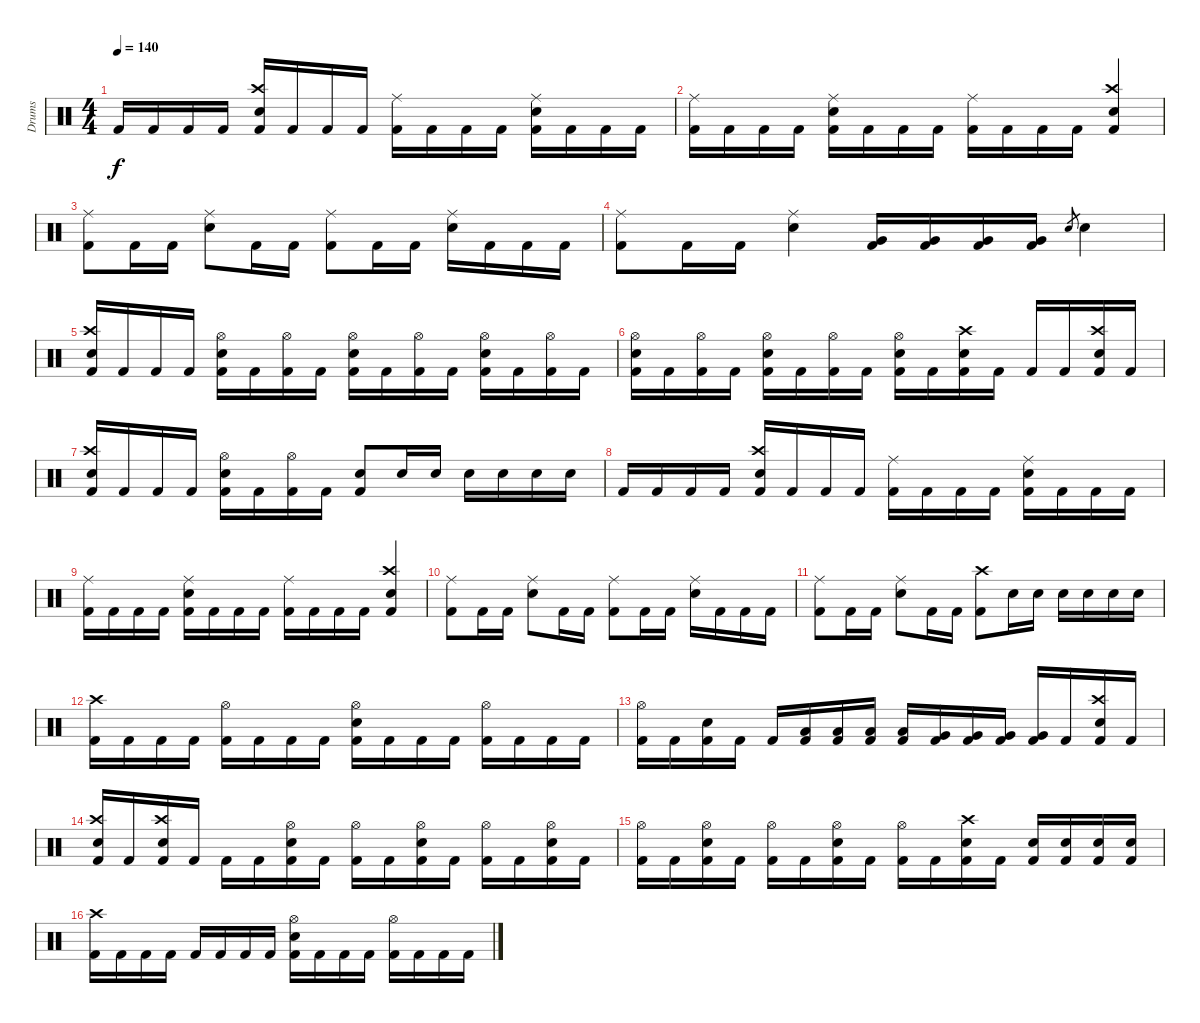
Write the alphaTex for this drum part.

\track ("Drums" "Drums") {instrument percussion}
\staff {score}
\articulation defaults
\ts (4 4)
\tempo 140
\clef neutral
\ks c "Kick (hit) 2".16{dy f} "Kick (hit) 2".16 "Kick (hit) 2".16 "Kick (hit) 2".16
("Crash high (hit)" "Electric Snare (hit)" "Kick (hit) 2").16 "Kick (hit) 2".16 "Kick (hit) 2".16 "Kick (hit) 2".16 ("Ride (middle)" "Kick (hit) 2").16 "Kick (hit) 2".16 "Kick (hit) 2".16 "Kick (hit) 2".16 ("Ride (middle)" "Electric Snare (hit)" "Kick (hit) 2").16 "Kick (hit) 2".16 "Kick (hit) 2".16 "Kick (hit) 2".16 |
("Ride (middle)" "Kick (hit) 2").16 "Kick (hit) 2".16 "Kick (hit) 2".16 "Kick (hit) 2".16 ("Ride (middle)" "Electric Snare (hit)" "Kick (hit) 2").16 "Kick (hit) 2".16 "Kick (hit) 2".16 "Kick (hit) 2".16 ("Ride (middle)" "Kick (hit) 2").16 "Kick (hit) 2".16 "Kick (hit) 2".16 "Kick (hit) 2".16 ("Crash high (hit)" "Electric Snare (hit)" "Kick (hit) 2").4 |
("Ride (middle)" "Kick (hit) 2").8 "Kick (hit) 2".16 "Kick (hit) 2".16 ("Ride (middle)" "Electric Snare (hit)").8 "Kick (hit) 2".16 "Kick (hit) 2".16 ("Ride (middle)" "Kick (hit) 2").8 "Kick (hit) 2".16 "Kick (hit) 2".16 ("Ride (middle)" "Electric Snare (hit)").16 "Kick (hit) 2".16 "Kick (hit) 2".16 "Kick (hit) 2".16 |
("Ride (middle)" "Kick (hit) 2").8 "Kick (hit) 2".16 "Kick (hit) 2".16 ("Ride (middle)" "Electric Snare (hit)").4 ("Very Low Tom (hit)" "Kick (hit) 2").16 ("Very Low Tom (hit)" "Kick (hit) 2").16 ("Very Low Tom (hit)" "Kick (hit) 2").16 ("Very Low Tom (hit)" "Kick (hit) 2").16 "Electric Snare (hit)".8{gr} "Electric Snare (hit)".4 |
("Crash high (hit)" "Electric Snare (hit)" "Kick (hit) 2").16 "Kick (hit) 2".16 "Kick (hit) 2".16 "Kick (hit) 2".16 ("Hi-Hat (open)" "Electric Snare (hit)" "Kick (hit) 2").16 "Kick (hit) 2".16 ("Hi-Hat (open)" "Kick (hit) 2").16 "Kick (hit) 2".16 ("Hi-Hat (open)" "Electric Snare (hit)" "Kick (hit) 2").16 "Kick (hit) 2".16 ("Hi-Hat (open)" "Kick (hit) 2").16 "Kick (hit) 2".16 ("Hi-Hat (open)" "Electric Snare (hit)" "Kick (hit) 2").16 "Kick (hit) 2".16 ("Hi-Hat (open)" "Kick (hit) 2").16 "Kick (hit) 2".16 |
("Hi-Hat (open)" "Electric Snare (hit)" "Kick (hit) 2").16 "Kick (hit) 2".16 ("Hi-Hat (open)" "Kick (hit) 2").16 "Kick (hit) 2".16 ("Hi-Hat (open)" "Electric Snare (hit)" "Kick (hit) 2").16 "Kick (hit) 2".16 ("Hi-Hat (open)" "Kick (hit) 2").16 "Kick (hit) 2".16 ("Hi-Hat (open)" "Electric Snare (hit)" "Kick (hit) 2").16 "Kick (hit) 2".16 ("Crash high (hit)" "Electric Snare (hit)" "Kick (hit) 2").16 "Kick (hit) 2".16 "Kick (hit) 2".16 "Kick (hit) 2".16 ("Crash high (hit)" "Electric Snare (hit)" "Kick (hit) 2").16 "Kick (hit) 2".16 |
("Crash high (hit)" "Electric Snare (hit)" "Kick (hit) 2").16 "Kick (hit) 2".16 "Kick (hit) 2".16 "Kick (hit) 2".16 ("Hi-Hat (open)" "Electric Snare (hit)" "Kick (hit) 2").16 "Kick (hit) 2".16 ("Hi-Hat (open)" "Kick (hit) 2").16 "Kick (hit) 2".16 ("Electric Snare (hit)" "Kick (hit) 2").8 "Electric Snare (hit)".16 "Electric Snare (hit)".16 "Electric Snare (hit)".16 "Electric Snare (hit)".16 "Electric Snare (hit)".16 "Electric Snare (hit)".16 |
"Kick (hit) 2".16 "Kick (hit) 2".16 "Kick (hit) 2".16 "Kick (hit) 2".16 ("Crash high (hit)" "Electric Snare (hit)" "Kick (hit) 2").16 "Kick (hit) 2".16 "Kick (hit) 2".16 "Kick (hit) 2".16 ("Ride (middle)" "Kick (hit) 2").16 "Kick (hit) 2".16 "Kick (hit) 2".16 "Kick (hit) 2".16 ("Ride (middle)" "Electric Snare (hit)" "Kick (hit) 2").16 "Kick (hit) 2".16 "Kick (hit) 2".16 "Kick (hit) 2".16 |
("Ride (middle)" "Kick (hit) 2").16 "Kick (hit) 2".16 "Kick (hit) 2".16 "Kick (hit) 2".16 ("Ride (middle)" "Electric Snare (hit)" "Kick (hit) 2").16 "Kick (hit) 2".16 "Kick (hit) 2".16 "Kick (hit) 2".16 ("Ride (middle)" "Kick (hit) 2").16 "Kick (hit) 2".16 "Kick (hit) 2".16 "Kick (hit) 2".16 ("Crash high (hit)" "Electric Snare (hit)" "Kick (hit) 2").4 |
("Ride (middle)" "Kick (hit) 2").8 "Kick (hit) 2".16 "Kick (hit) 2".16 ("Ride (middle)" "Electric Snare (hit)").8 "Kick (hit) 2".16 "Kick (hit) 2".16 ("Ride (middle)" "Kick (hit) 2").8 "Kick (hit) 2".16 "Kick (hit) 2".16 ("Ride (middle)" "Electric Snare (hit)").16 "Kick (hit) 2".16 "Kick (hit) 2".16 "Kick (hit) 2".16 |
("Ride (middle)" "Kick (hit) 2").8 "Kick (hit) 2".16 "Kick (hit) 2".16 ("Ride (middle)" "Electric Snare (hit)").8 "Kick (hit) 2".16 "Kick (hit) 2".16 ("Crash high (hit)" "Kick (hit) 2").8 "Electric Snare (hit)".16 "Electric Snare (hit)".16 "Electric Snare (hit)".16 "Electric Snare (hit)".16 "Electric Snare (hit)".16 "Electric Snare (hit)".16 |
("Crash high (hit)" "Kick (hit) 2").16 "Kick (hit) 2".16 "Kick (hit) 2".16 "Kick (hit) 2".16 ("Hi-Hat (open)" "Kick (hit) 2").16 "Kick (hit) 2".16 "Kick (hit) 2".16 "Kick (hit) 2".16 ("Hi-Hat (open)" "Electric Snare (hit)" "Kick (hit) 2").16 "Kick (hit) 2".16 "Kick (hit) 2".16 "Kick (hit) 2".16 ("Hi-Hat (open)" "Kick (hit) 2").16 "Kick (hit) 2".16 "Kick (hit) 2".16 "Kick (hit) 2".16 |
("Hi-Hat (open)" "Kick (hit) 2").16 "Kick (hit) 2".16 ("Electric Snare (hit)" "Kick (hit) 2").16 "Kick (hit) 2".16 "Kick (hit) 2".16 ("Low Tom (hit)" "Kick (hit) 2").16 ("Low Tom (hit)" "Kick (hit) 2").16 ("Low Tom (hit)" "Kick (hit) 2").16 ("Low Tom (hit)" "Kick (hit) 2").16 ("Very Low Tom (hit)" "Kick (hit) 2").16 ("Very Low Tom (hit)" "Kick (hit) 2").16 ("Very Low Tom (hit)" "Kick (hit) 2").16 ("Very Low Tom (hit)" "Kick (hit) 2").16 "Kick (hit) 2".16 ("Crash high (hit)" "Electric Snare (hit)" "Kick (hit) 2").16 "Kick (hit) 2".16 |
("Crash high (hit)" "Electric Snare (hit)" "Kick (hit) 2").16 "Kick (hit) 2".16 ("Crash high (hit)" "Electric Snare (hit)" "Kick (hit) 2").16 "Kick (hit) 2".16 "Kick (hit) 2".16 "Kick (hit) 2".16 ("Hi-Hat (open)" "Electric Snare (hit)" "Kick (hit) 2").16 "Kick (hit) 2".16 ("Hi-Hat (open)" "Kick (hit) 2").16 "Kick (hit) 2".16 ("Hi-Hat (open)" "Electric Snare (hit)" "Kick (hit) 2").16 "Kick (hit) 2".16 ("Hi-Hat (open)" "Kick (hit) 2").16 "Kick (hit) 2".16 ("Hi-Hat (open)" "Electric Snare (hit)" "Kick (hit) 2").16 "Kick (hit) 2".16 |
("Hi-Hat (open)" "Kick (hit) 2").16 "Kick (hit) 2".16 ("Hi-Hat (open)" "Electric Snare (hit)" "Kick (hit) 2").16 "Kick (hit) 2".16 ("Hi-Hat (open)" "Kick (hit) 2").16 "Kick (hit) 2".16 ("Hi-Hat (open)" "Electric Snare (hit)" "Kick (hit) 2").16 "Kick (hit) 2".16 ("Hi-Hat (open)" "Kick (hit) 2").16 "Kick (hit) 2".16 ("Crash high (hit)" "Electric Snare (hit)" "Kick (hit) 2").16 "Kick (hit) 2".16 ("Electric Snare (hit)" "Kick (hit) 2").16 ("Electric Snare (hit)" "Kick (hit) 2").16 ("Electric Snare (hit)" "Kick (hit) 2").16 ("Electric Snare (hit)" "Kick (hit) 2").16 |
("Crash high (hit)" "Kick (hit) 2").16 "Kick (hit) 2".16 "Kick (hit) 2".16 "Kick (hit) 2".16 "Kick (hit) 2".16 "Kick (hit) 2".16 "Kick (hit) 2".16 "Kick (hit) 2".16 ("Hi-Hat (open)" "Electric Snare (hit)" "Kick (hit) 2").16 "Kick (hit) 2".16 "Kick (hit) 2".16 "Kick (hit) 2".16 ("Hi-Hat (open)" "Kick (hit) 2").16 "Kick (hit) 2".16 "Kick (hit) 2".16 "Kick (hit) 2".16
